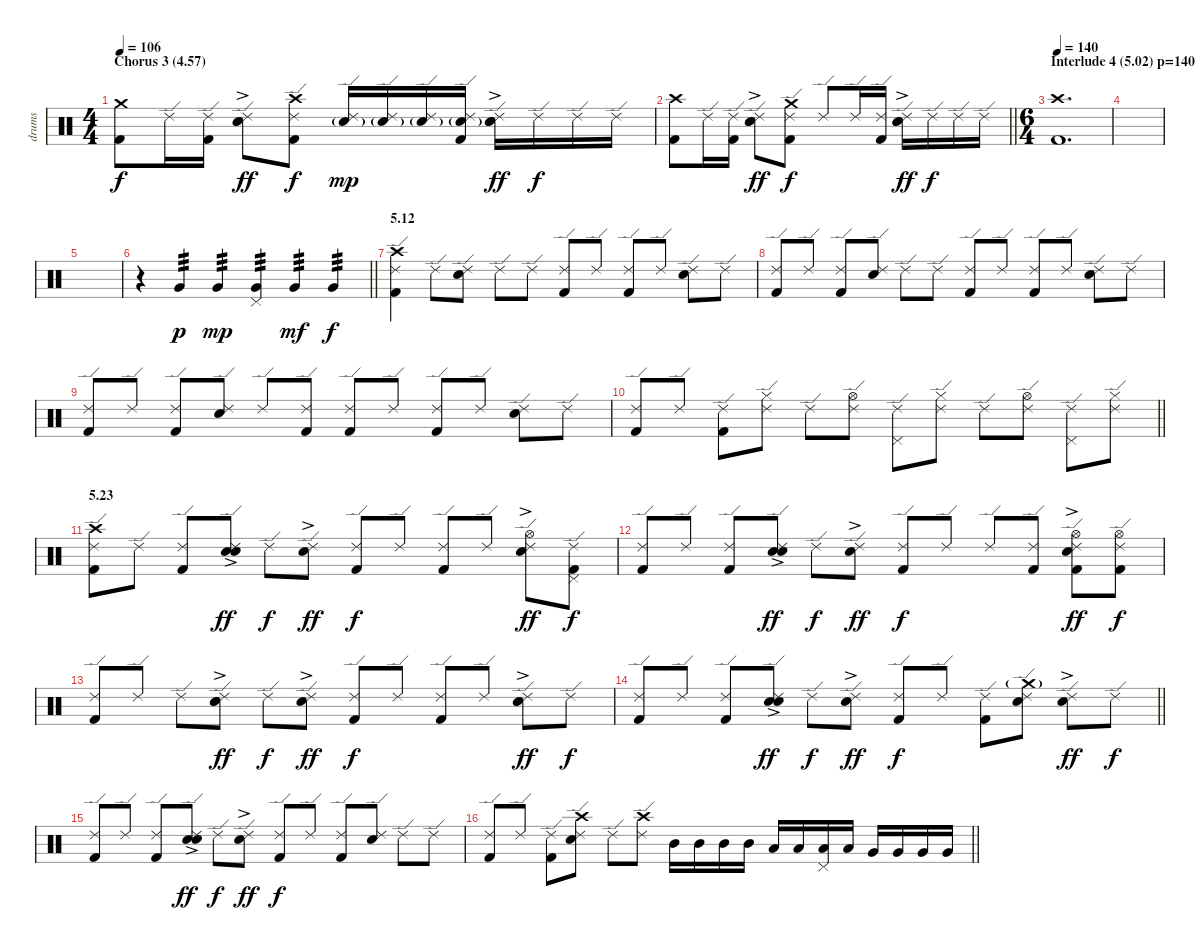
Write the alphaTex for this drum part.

\track ("drums" "drums") {instrument percussion}
\staff {score}
\articulation defaults
\ts (4 4)
\section ("" "Chorus 3 (4.57)")
\tempo 106
\clef neutral
\ks c
("Crash medium (hit)" "Kick (hit) 2").8{dy f} "Ride (edge) 2".16 ("Ride (edge) 2" "Kick (hit) 2").16 ("Ride (edge) 2" "Hand Clap (hit)"{ac} "Electric Snare (hit)").8{dy ff} ("Ride (edge) 2" "Crash high (hit)" "Kick (hit) 2").8{dy f} ("Ride (edge) 2" "Electric Snare (hit)"{g}).16{dy mp} ("Ride (edge) 2" "Electric Snare (hit)"{g}).16 ("Ride (edge) 2" "Electric Snare (hit)"{g}).16 ("Ride (edge) 2" "Electric Snare (hit)"{g} "Kick (hit) 2").16 ("Ride (edge) 2" "Hand Clap (hit)"{ac} "Electric Snare (hit)").16{dy ff} "Ride (edge) 2".16{dy f} "Ride (edge) 2".16 "Ride (edge) 2".16 |
\barLineRight lightlight
("Crash high (hit)" "Kick (hit) 2").8 "Ride (edge) 2".16 ("Ride (edge) 2" "Kick (hit) 2").16 ("Ride (edge) 2" "Hand Clap (hit)"{ac} "Electric Snare (hit)").8{dy ff} ("Ride (edge) 2" "Crash medium (hit)" "Kick (hit) 2").8{dy f} "Ride (edge) 2".8 "Ride (edge) 2".16 ("Ride (edge) 2" "Kick (hit) 2").16 ("Ride (edge) 2" "Hand Clap (hit)"{ac} "Electric Snare (hit)").16{dy ff} "Ride (edge) 2".16{dy f} "Ride (edge) 2".16 "Ride (edge) 2".16 |
\ts (6 4)
\section ("" "Interlude 4 (5.02) p=140")
\tempo 140
("Crash high (hit)" "Kick (hit) 2").1{d} |
|
|
\barLineRight lightlight
r.4 "Very Low Tom (hit)".4{tp 3 dy p} "Very Low Tom (hit)".4{tp 3 dy mp} ("Pedal Hi-Hat (hit)" "Very Low Tom (hit)").4{tp 3} "Very Low Tom (hit)".4{tp 3 dy mf} "Very Low Tom (hit)".4{tp 3 dy f} |
\section ("" "5.12")
("Ride (edge) 2" "Crash high (hit)" "Kick (hit) 2").4 "Ride (edge) 2".8 ("Ride (edge) 2" "Electric Snare (hit)").8 "Ride (edge) 2".8 "Ride (edge) 2".8 ("Ride (edge) 2" "Kick (hit) 2").8 "Ride (edge) 2".8 ("Ride (edge) 2" "Kick (hit) 2").8 "Ride (edge) 2".8 ("Ride (edge) 2" "Electric Snare (hit)").8 "Ride (edge) 2".8 |
("Ride (edge) 2" "Kick (hit) 2").8 "Ride (edge) 2".8 ("Ride (edge) 2" "Kick (hit) 2").8 ("Ride (edge) 2" "Electric Snare (hit)").8 "Ride (edge) 2".8 "Ride (edge) 2".8 ("Ride (edge) 2" "Kick (hit) 2").8 "Ride (edge) 2".8 ("Ride (edge) 2" "Kick (hit) 2").8 "Ride (edge) 2".8 ("Ride (edge) 2" "Electric Snare (hit)").8 "Ride (edge) 2".8 |
("Ride (edge) 2" "Kick (hit) 2").8 "Ride (edge) 2".8 ("Ride (edge) 2" "Kick (hit) 2").8 ("Ride (edge) 2" "Electric Snare (hit)").8 "Ride (edge) 2".8 ("Ride (edge) 2" "Kick (hit) 2").8 ("Ride (edge) 2" "Kick (hit) 2").8 "Ride (edge) 2".8 ("Ride (edge) 2" "Kick (hit) 2").8 "Ride (edge) 2".8 ("Ride (edge) 2" "Electric Snare (hit)").8 "Ride (edge) 2".8 |
\barLineRight lightlight
("Ride (edge) 2" "Kick (hit) 2").8 "Ride (edge) 2".8 ("Ride (edge) 2" "Kick (hit) 2").8 ("Ride (edge) 2" "Hi-Hat (closed)").8 "Ride (edge) 2".8 ("Ride (edge) 2" "Hi-Hat (open)").8 ("Ride (edge) 2" "Pedal Hi-Hat (hit)").8 ("Ride (edge) 2" "Hi-Hat (closed)").8 "Ride (edge) 2".8 ("Ride (edge) 2" "Hi-Hat (open)").8 ("Ride (edge) 2" "Pedal Hi-Hat (hit)").8 ("Ride (edge) 2" "Hi-Hat (closed)").8 |
\section ("" "5.23")
("Ride (edge) 2" "Crash high (hit)" "Kick (hit) 2").8 "Ride (edge) 2".8 ("Ride (edge) 2" "Kick (hit) 2").8 ("Ride (edge) 2" "Hand Clap (hit)"{ac} "Electric Snare (hit)").8{dy ff} "Ride (edge) 2".8{dy f} ("Ride (edge) 2" "Hand Clap (hit)"{ac}).8{dy ff} ("Ride (edge) 2" "Kick (hit) 2").8{dy f} "Ride (edge) 2".8 ("Ride (edge) 2" "Kick (hit) 2").8 "Ride (edge) 2".8 ("Ride (edge) 2" "Hand Clap (hit)"{ac} "Hi-Hat (open)").8{dy ff} ("Ride (edge) 2" "Pedal Hi-Hat (hit)" "Kick (hit) 2").8{dy f} |
("Ride (edge) 2" "Kick (hit) 2").8 "Ride (edge) 2".8 ("Ride (edge) 2" "Kick (hit) 2").8 ("Ride (edge) 2" "Hand Clap (hit)"{ac} "Electric Snare (hit)").8{dy ff} "Ride (edge) 2".8{dy f} ("Ride (edge) 2" "Hand Clap (hit)"{ac}).8{dy ff} ("Ride (edge) 2" "Kick (hit) 2").8{dy f} "Ride (edge) 2".8 "Ride (edge) 2".8 ("Ride (edge) 2" "Kick (hit) 2").8 ("Ride (edge) 2" "Hand Clap (hit)"{ac} "Hi-Hat (open)" "Kick (hit) 2").8{dy ff} ("Ride (edge) 2" "Hi-Hat (open)" "Kick (hit) 2").8{dy f} |
("Ride (edge) 2" "Kick (hit) 2").8 "Ride (edge) 2".8 "Ride (edge) 2".8 ("Ride (edge) 2" "Hand Clap (hit)"{ac} "Electric Snare (hit)").8{dy ff} "Ride (edge) 2".8{dy f} ("Ride (edge) 2" "Hand Clap (hit)"{ac}).8{dy ff} ("Ride (edge) 2" "Kick (hit) 2").8{dy f} "Ride (edge) 2".8 ("Ride (edge) 2" "Kick (hit) 2").8 "Ride (edge) 2".8 ("Ride (edge) 2" "Hand Clap (hit)"{ac} "Electric Snare (hit)").8{dy ff} "Ride (edge) 2".8{dy f} |
\barLineRight lightlight
("Ride (edge) 2" "Kick (hit) 2").8 "Ride (edge) 2".8 ("Ride (edge) 2" "Kick (hit) 2").8 ("Ride (edge) 2" "Hand Clap (hit)"{ac} "Electric Snare (hit)").8{dy ff} "Ride (edge) 2".8{dy f} ("Ride (edge) 2" "Hand Clap (hit)"{ac}).8{dy ff} ("Ride (edge) 2" "Kick (hit) 2").8{dy f} "Ride (edge) 2".8 ("Ride (edge) 2" "Kick (hit) 2").8 ("Ride (edge) 2" "Crash medium (hit)"{g} "Electric Snare (hit)").8 ("Ride (edge) 2" "Hand Clap (hit)"{ac}).8{dy ff} "Ride (edge) 2".8{dy f} |
("Ride (edge) 2" "Kick (hit) 2").8 "Ride (edge) 2".8 ("Ride (edge) 2" "Kick (hit) 2").8 ("Ride (edge) 2" "Hand Clap (hit)"{ac} "Electric Snare (hit)").8{dy ff} "Ride (edge) 2".8{dy f} ("Ride (edge) 2" "Hand Clap (hit)"{ac}).8{dy ff} ("Ride (edge) 2" "Kick (hit) 2").8{dy f} "Ride (edge) 2".8 ("Ride (edge) 2" "Kick (hit) 2").8 ("Ride (edge) 2" "Electric Snare (hit)").8 "Ride (edge) 2".8 "Ride (edge) 2".8 |
\barLineRight lightlight
("Ride (edge) 2" "Kick (hit) 2").8 "Ride (edge) 2".8 ("Ride (edge) 2" "Kick (hit) 2").8 ("Ride (edge) 2" "Crash high (hit)" "Electric Snare (hit)").8 "Ride (edge) 2".8 ("Ride (edge) 2" "Crash high (hit)").8 "Mid Tom (hit)".16 "Mid Tom (hit)".16 "Mid Tom (hit)".16 "Mid Tom (hit)".16 "Low Tom (hit)".16 "Low Tom (hit)".16 ("Pedal Hi-Hat (hit)" "Low Tom (hit)").16 "Low Tom (hit)".16 "Very Low Tom (hit)".16 "Very Low Tom (hit)".16 "Very Low Tom (hit)".16 "Very Low Tom (hit)".16
